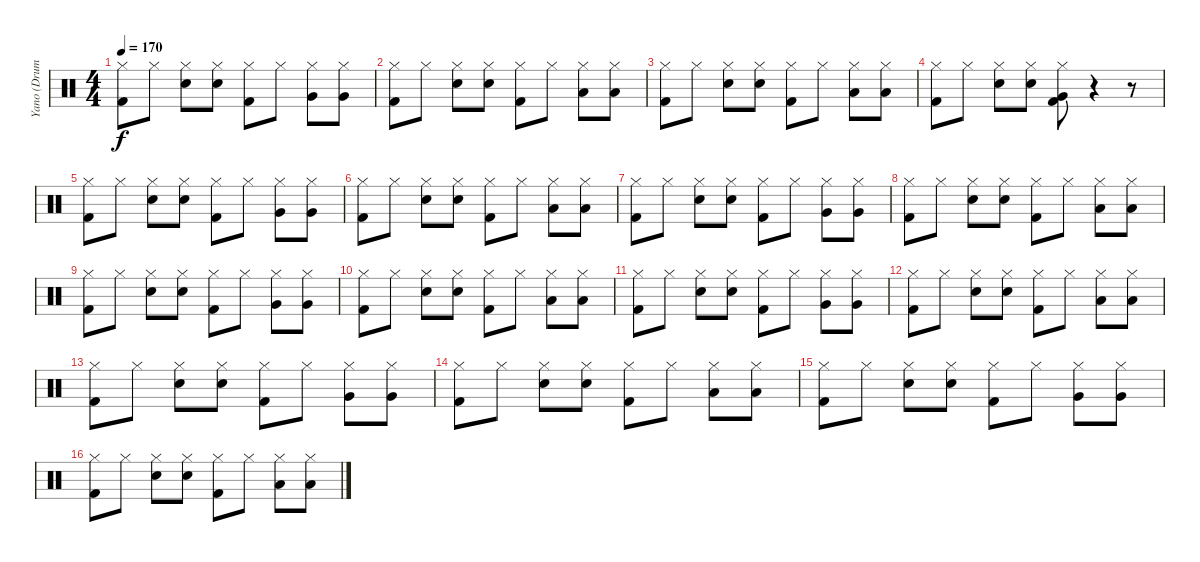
\track ("Yano (Drums)" "Yano (Drum") {instrument percussion}
\staff {score}
\articulation defaults
\ts (4 4)
\tempo 170
\clef neutral
\ks c
("Hi-Hat (closed)" "Kick (hit) 2").8{dy f} "Hi-Hat (closed)".8 ("Hi-Hat (closed)" "Electric Snare (hit)").8 ("Hi-Hat (closed)" "Electric Snare (hit)").8 ("Hi-Hat (closed)" "Kick (hit) 2").8 "Hi-Hat (closed)".8 ("Hi-Hat (closed)" "Very Low Tom (hit)").8 ("Hi-Hat (closed)" "Very Low Tom (hit)").8 |
("Hi-Hat (closed)" "Kick (hit) 2").8 "Hi-Hat (closed)".8 ("Hi-Hat (closed)" "Electric Snare (hit)").8 ("Hi-Hat (closed)" "Electric Snare (hit)").8 ("Hi-Hat (closed)" "Kick (hit) 2").8 "Hi-Hat (closed)".8 ("Hi-Hat (closed)" "Low Tom (hit)").8 ("Hi-Hat (closed)" "Low Tom (hit)").8 |
("Hi-Hat (closed)" "Kick (hit) 2").8 "Hi-Hat (closed)".8 ("Hi-Hat (closed)" "Electric Snare (hit)").8 ("Hi-Hat (closed)" "Electric Snare (hit)").8 ("Hi-Hat (closed)" "Kick (hit) 2").8 "Hi-Hat (closed)".8 ("Hi-Hat (closed)" "Low Tom (hit)").8 ("Hi-Hat (closed)" "Low Tom (hit)").8 |
("Hi-Hat (closed)" "Kick (hit) 2").8 "Hi-Hat (closed)".8 ("Hi-Hat (closed)" "Electric Snare (hit)").8 ("Hi-Hat (closed)" "Electric Snare (hit)").8 ("Hi-Hat (closed)" "Very Low Tom (hit)" "Kick (hit) 2").8 r.4 r.8 |
("Hi-Hat (closed)" "Kick (hit) 2").8 "Hi-Hat (closed)".8 ("Hi-Hat (closed)" "Electric Snare (hit)").8 ("Hi-Hat (closed)" "Electric Snare (hit)").8 ("Hi-Hat (closed)" "Kick (hit) 2").8 "Hi-Hat (closed)".8 ("Hi-Hat (closed)" "Very Low Tom (hit)").8 ("Hi-Hat (closed)" "Very Low Tom (hit)").8 |
("Hi-Hat (closed)" "Kick (hit) 2").8 "Hi-Hat (closed)".8 ("Hi-Hat (closed)" "Electric Snare (hit)").8 ("Hi-Hat (closed)" "Electric Snare (hit)").8 ("Hi-Hat (closed)" "Kick (hit) 2").8 "Hi-Hat (closed)".8 ("Hi-Hat (closed)" "Low Tom (hit)").8 ("Hi-Hat (closed)" "Low Tom (hit)").8 |
("Hi-Hat (closed)" "Kick (hit) 2").8 "Hi-Hat (closed)".8 ("Hi-Hat (closed)" "Electric Snare (hit)").8 ("Hi-Hat (closed)" "Electric Snare (hit)").8 ("Hi-Hat (closed)" "Kick (hit) 2").8 "Hi-Hat (closed)".8 ("Hi-Hat (closed)" "Very Low Tom (hit)").8 ("Hi-Hat (closed)" "Very Low Tom (hit)").8 |
("Hi-Hat (closed)" "Kick (hit) 2").8 "Hi-Hat (closed)".8 ("Hi-Hat (closed)" "Electric Snare (hit)").8 ("Hi-Hat (closed)" "Electric Snare (hit)").8 ("Hi-Hat (closed)" "Kick (hit) 2").8 "Hi-Hat (closed)".8 ("Hi-Hat (closed)" "Low Tom (hit)").8 ("Hi-Hat (closed)" "Low Tom (hit)").8 |
("Hi-Hat (closed)" "Kick (hit) 2").8 "Hi-Hat (closed)".8 ("Hi-Hat (closed)" "Electric Snare (hit)").8 ("Hi-Hat (closed)" "Electric Snare (hit)").8 ("Hi-Hat (closed)" "Kick (hit) 2").8 "Hi-Hat (closed)".8 ("Hi-Hat (closed)" "Very Low Tom (hit)").8 ("Hi-Hat (closed)" "Very Low Tom (hit)").8 |
("Hi-Hat (closed)" "Kick (hit) 2").8 "Hi-Hat (closed)".8 ("Hi-Hat (closed)" "Electric Snare (hit)").8 ("Hi-Hat (closed)" "Electric Snare (hit)").8 ("Hi-Hat (closed)" "Kick (hit) 2").8 "Hi-Hat (closed)".8 ("Hi-Hat (closed)" "Low Tom (hit)").8 ("Hi-Hat (closed)" "Low Tom (hit)").8 |
("Hi-Hat (closed)" "Kick (hit) 2").8 "Hi-Hat (closed)".8 ("Hi-Hat (closed)" "Electric Snare (hit)").8 ("Hi-Hat (closed)" "Electric Snare (hit)").8 ("Hi-Hat (closed)" "Kick (hit) 2").8 "Hi-Hat (closed)".8 ("Hi-Hat (closed)" "Very Low Tom (hit)").8 ("Hi-Hat (closed)" "Very Low Tom (hit)").8 |
("Hi-Hat (closed)" "Kick (hit) 2").8 "Hi-Hat (closed)".8 ("Hi-Hat (closed)" "Electric Snare (hit)").8 ("Hi-Hat (closed)" "Electric Snare (hit)").8 ("Hi-Hat (closed)" "Kick (hit) 2").8 "Hi-Hat (closed)".8 ("Hi-Hat (closed)" "Low Tom (hit)").8 ("Hi-Hat (closed)" "Low Tom (hit)").8 |
("Hi-Hat (closed)" "Kick (hit) 2").8 "Hi-Hat (closed)".8 ("Hi-Hat (closed)" "Electric Snare (hit)").8 ("Hi-Hat (closed)" "Electric Snare (hit)").8 ("Hi-Hat (closed)" "Kick (hit) 2").8 "Hi-Hat (closed)".8 ("Hi-Hat (closed)" "Very Low Tom (hit)").8 ("Hi-Hat (closed)" "Very Low Tom (hit)").8 |
("Hi-Hat (closed)" "Kick (hit) 2").8 "Hi-Hat (closed)".8 ("Hi-Hat (closed)" "Electric Snare (hit)").8 ("Hi-Hat (closed)" "Electric Snare (hit)").8 ("Hi-Hat (closed)" "Kick (hit) 2").8 "Hi-Hat (closed)".8 ("Hi-Hat (closed)" "Low Tom (hit)").8 ("Hi-Hat (closed)" "Low Tom (hit)").8 |
("Hi-Hat (closed)" "Kick (hit) 2").8 "Hi-Hat (closed)".8 ("Hi-Hat (closed)" "Electric Snare (hit)").8 ("Hi-Hat (closed)" "Electric Snare (hit)").8 ("Hi-Hat (closed)" "Kick (hit) 2").8 "Hi-Hat (closed)".8 ("Hi-Hat (closed)" "Very Low Tom (hit)").8 ("Hi-Hat (closed)" "Very Low Tom (hit)").8 |
("Hi-Hat (closed)" "Kick (hit) 2").8 "Hi-Hat (closed)".8 ("Hi-Hat (closed)" "Electric Snare (hit)").8 ("Hi-Hat (closed)" "Electric Snare (hit)").8 ("Hi-Hat (closed)" "Kick (hit) 2").8 "Hi-Hat (closed)".8 ("Hi-Hat (closed)" "Low Tom (hit)").8 ("Hi-Hat (closed)" "Low Tom (hit)").8
